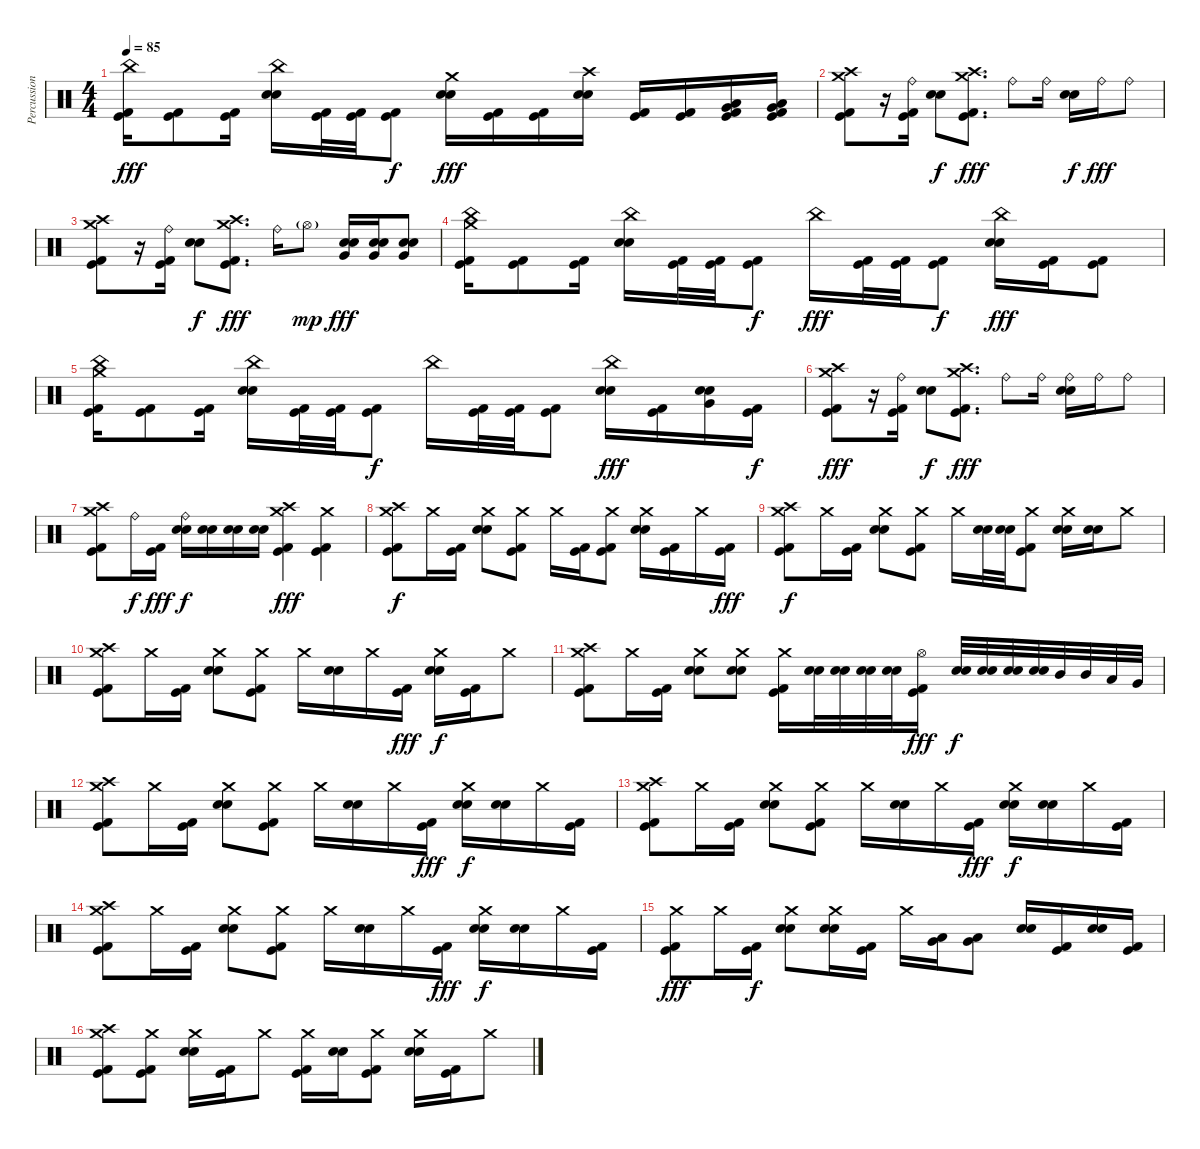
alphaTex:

\track ("Percussion" "Percussion") {instrument percussion}
\staff {score}
\articulation defaults
\ts (4 4)
\tempo 85
\clef neutral
\ks c
("China (hit)" "Kick (hit)" "Kick (hit) 2").16{dy fff} ("Kick (hit)" "Kick (hit) 2").8 ("Kick (hit)" "Kick (hit) 2").16 ("China (hit)" "Electric Snare (hit)" "Snare (hit) 2").16 ("Kick (hit)" "Kick (hit) 2").32 ("Kick (hit)" "Kick (hit) 2").32 ("Kick (hit)" "Kick (hit) 2").8{dy f} ("Crash medium (hit)" "Electric Snare (hit)" "Snare (hit) 2").16{dy fff} ("Kick (hit)" "Kick (hit) 2").16 ("Kick (hit)" "Kick (hit) 2").16 ("Crash high (hit)" "Electric Snare (hit)" "Snare (hit) 2").16 ("Kick (hit)" "Kick (hit) 2").16 ("Kick (hit)" "Kick (hit) 2").16 ("Very Low Tom (hit)" "Low Floor Tom (hit)" "Kick (hit)" "Kick (hit) 2").16 ("Very Low Tom (hit)" "Low Floor Tom (hit)" "Kick (hit)" "Kick (hit) 2").16 |
("Crash high (hit)" "Crash medium (hit)" "Kick (hit)" "Kick (hit) 2").8 r.16 ("Ride (bell)" "Kick (hit)" "Kick (hit) 2").16 ("Electric Snare (hit)" "Snare (hit) 2").8{dy f} ("Crash medium (hit)" "Crash high (hit)" "Kick (hit)" "Kick (hit) 2").8{d dy fff} "Ride (bell)".8 "Ride (bell)".16 ("Electric Snare (hit)" "Snare (hit) 2").16{dy f} "Ride (bell)".16{dy fff} "Ride (bell)".8 |
("Crash high (hit)" "Crash medium (hit)" "Kick (hit)" "Kick (hit) 2").8 r.16 ("Ride (bell)" "Kick (hit)" "Kick (hit) 2").16 ("Electric Snare (hit)" "Snare (hit) 2").8{dy f} ("Crash medium (hit)" "Crash high (hit)" "Kick (hit)" "Kick (hit) 2").8{d dy fff} "Ride (bell)".16 "Hi-Hat (open)"{g}.8{dy mp} ("Electric Snare (hit)" "Snare (hit) 2" "Very Low Tom (hit)").16{dy fff} ("Electric Snare (hit)" "Snare (hit) 2" "Very Low Tom (hit)").16 ("Electric Snare (hit)" "Snare (hit) 2" "Very Low Tom (hit)").8 |
("Crash medium (hit)" "China (hit)" "Kick (hit)" "Kick (hit) 2").16 ("Kick (hit)" "Kick (hit) 2").8 ("Kick (hit)" "Kick (hit) 2").16 ("China (hit)" "Electric Snare (hit)" "Snare (hit) 2").16 ("Kick (hit)" "Kick (hit) 2").32 ("Kick (hit)" "Kick (hit) 2").32 ("Kick (hit)" "Kick (hit) 2").8{dy f} "China (hit)".16{dy fff} ("Kick (hit)" "Kick (hit) 2").32 ("Kick (hit)" "Kick (hit) 2").32 ("Kick (hit)" "Kick (hit) 2").8{dy f} ("China (hit)" "Electric Snare (hit)" "Snare (hit) 2").16{dy fff} ("Kick (hit)" "Kick (hit) 2").16 ("Kick (hit)" "Kick (hit) 2").8 |
("Crash medium (hit)" "China (hit)" "Kick (hit)" "Kick (hit) 2").16 ("Kick (hit)" "Kick (hit) 2").8 ("Kick (hit)" "Kick (hit) 2").16 ("China (hit)" "Electric Snare (hit)" "Snare (hit) 2").16 ("Kick (hit)" "Kick (hit) 2").32 ("Kick (hit)" "Kick (hit) 2").32 ("Kick (hit)" "Kick (hit) 2").8{dy f} "China (hit)".16 ("Kick (hit)" "Kick (hit) 2").32 ("Kick (hit)" "Kick (hit) 2").32 ("Kick (hit)" "Kick (hit) 2").8 ("China (hit)" "Electric Snare (hit)" "Snare (hit) 2").16{dy fff} ("Kick (hit)" "Kick (hit) 2").16 ("Very Low Tom (hit)" "Electric Snare (hit)" "Snare (hit) 2").16 ("Kick (hit)" "Kick (hit) 2").16{dy f} |
("Crash high (hit)" "Crash medium (hit)" "Kick (hit)" "Kick (hit) 2").8{dy fff} r.16 ("Ride (bell)" "Kick (hit)" "Kick (hit) 2").16 ("Electric Snare (hit)" "Snare (hit) 2").8{dy f} ("Crash medium (hit)" "Crash high (hit)" "Kick (hit)" "Kick (hit) 2").8{d dy fff} "Ride (bell)".8 "Ride (bell)".16 ("Ride (bell)" "Electric Snare (hit)" "Snare (hit) 2").16 "Ride (bell)".16 "Ride (bell)".8 |
("Crash high (hit)" "Crash medium (hit)" "Kick (hit)" "Kick (hit) 2").8 "Ride (bell)".16{dy f} ("Kick (hit)" "Kick (hit) 2").16{dy fff} ("Ride (bell)" "Electric Snare (hit)" "Snare (hit) 2").16{dy f} ("Electric Snare (hit)" "Snare (hit) 2").16 ("Electric Snare (hit)" "Snare (hit) 2").16 ("Electric Snare (hit)" "Snare (hit) 2").16 ("Crash medium (hit)" "Crash high (hit)" "Kick (hit)" "Kick (hit) 2").4{dy fff} ("Crash medium (hit)" "Kick (hit)" "Kick (hit) 2").4 |
("Crash high (hit)" "Crash medium (hit)" "Kick (hit)" "Kick (hit) 2").8{dy f} "Crash medium (hit)".16 ("Kick (hit)" "Kick (hit) 2").16 ("Crash medium (hit)" "Electric Snare (hit)" "Snare (hit) 2").8 ("Crash medium (hit)" "Kick (hit)" "Kick (hit) 2").8 "Crash medium (hit)".16 ("Kick (hit)" "Kick (hit) 2").16 ("Crash medium (hit)" "Kick (hit)" "Kick (hit) 2").8 ("Crash medium (hit)" "Electric Snare (hit)" "Snare (hit) 2").16 ("Kick (hit)" "Kick (hit) 2").16 "Crash medium (hit)".16 ("Kick (hit)" "Kick (hit) 2").16{dy fff} |
("Crash high (hit)" "Crash medium (hit)" "Kick (hit)" "Kick (hit) 2").8{dy f} "Crash medium (hit)".16 ("Kick (hit)" "Kick (hit) 2").16 ("Crash medium (hit)" "Electric Snare (hit)" "Snare (hit) 2").8 ("Crash medium (hit)" "Kick (hit)" "Kick (hit) 2").8 "Crash medium (hit)".16 ("Electric Snare (hit)" "Snare (hit) 2").32 ("Electric Snare (hit)" "Snare (hit) 2").32 ("Crash medium (hit)" "Kick (hit)" "Kick (hit) 2").8 ("Crash medium (hit)" "Electric Snare (hit)" "Snare (hit) 2").16 ("Electric Snare (hit)" "Snare (hit) 2").16 "Crash medium (hit)".8 |
("Crash high (hit)" "Crash medium (hit)" "Kick (hit)" "Kick (hit) 2").8 "Crash medium (hit)".16 ("Kick (hit)" "Kick (hit) 2").16 ("Crash medium (hit)" "Electric Snare (hit)" "Snare (hit) 2").8 ("Crash medium (hit)" "Kick (hit)" "Kick (hit) 2").8 "Crash medium (hit)".16 ("Electric Snare (hit)" "Snare (hit) 2").16 "Crash medium (hit)".16 ("Kick (hit)" "Kick (hit) 2").16{dy fff} ("Crash medium (hit)" "Electric Snare (hit)" "Snare (hit) 2").16{dy f} ("Kick (hit)" "Kick (hit) 2").16 "Crash medium (hit)".8 |
("Crash high (hit)" "Crash medium (hit)" "Kick (hit)" "Kick (hit) 2").8 "Crash medium (hit)".16 ("Kick (hit)" "Kick (hit) 2").16 ("Crash medium (hit)" "Electric Snare (hit)" "Snare (hit) 2").8 ("Crash medium (hit)" "Electric Snare (hit)" "Snare (hit) 2").8 ("Crash medium (hit)" "Kick (hit)" "Kick (hit) 2").16 ("Electric Snare (hit)" "Snare (hit) 2").32 ("Electric Snare (hit)" "Snare (hit) 2").32 ("Electric Snare (hit)" "Snare (hit) 2").32 ("Electric Snare (hit)" "Snare (hit) 2").32 ("Hi-Hat (open)" "Kick (hit)" "Kick (hit) 2").16{dy fff} ("Electric Snare (hit)" "Snare (hit) 2").32{dy f} ("Electric Snare (hit)" "Snare (hit) 2").32 ("Electric Snare (hit)" "Snare (hit) 2").32 ("Electric Snare (hit)" "Snare (hit) 2").32 "Mid Tom (hit)".32 "Mid Tom (hit)".32 "Low Tom (hit)".32 "Very Low Tom (hit)".32 |
("Crash high (hit)" "Crash medium (hit)" "Kick (hit)" "Kick (hit) 2").8 "Crash medium (hit)".16 ("Kick (hit)" "Kick (hit) 2").16 ("Crash medium (hit)" "Electric Snare (hit)" "Snare (hit) 2").8 ("Crash medium (hit)" "Kick (hit)" "Kick (hit) 2").8 "Crash medium (hit)".16 ("Electric Snare (hit)" "Snare (hit) 2").16 "Crash medium (hit)".16 ("Kick (hit)" "Kick (hit) 2").16{dy fff} ("Crash medium (hit)" "Electric Snare (hit)" "Snare (hit) 2").16{dy f} ("Electric Snare (hit)" "Snare (hit) 2").16 "Crash medium (hit)".16 ("Kick (hit)" "Kick (hit) 2").16 |
("Crash high (hit)" "Crash medium (hit)" "Kick (hit)" "Kick (hit) 2").8 "Crash medium (hit)".16 ("Kick (hit)" "Kick (hit) 2").16 ("Crash medium (hit)" "Electric Snare (hit)" "Snare (hit) 2").8 ("Crash medium (hit)" "Kick (hit)" "Kick (hit) 2").8 "Crash medium (hit)".16 ("Electric Snare (hit)" "Snare (hit) 2").16 "Crash medium (hit)".16 ("Kick (hit)" "Kick (hit) 2").16{dy fff} ("Crash medium (hit)" "Electric Snare (hit)" "Snare (hit) 2").16{dy f} ("Electric Snare (hit)" "Snare (hit) 2").16 "Crash medium (hit)".16 ("Kick (hit)" "Kick (hit) 2").16 |
("Crash high (hit)" "Crash medium (hit)" "Kick (hit)" "Kick (hit) 2").8 "Crash medium (hit)".16 ("Kick (hit)" "Kick (hit) 2").16 ("Crash medium (hit)" "Electric Snare (hit)" "Snare (hit) 2").8 ("Crash medium (hit)" "Kick (hit)" "Kick (hit) 2").8 "Crash medium (hit)".16 ("Electric Snare (hit)" "Snare (hit) 2").16 "Crash medium (hit)".16 ("Kick (hit)" "Kick (hit) 2").16{dy fff} ("Crash medium (hit)" "Electric Snare (hit)" "Snare (hit) 2").16{dy f} ("Electric Snare (hit)" "Snare (hit) 2").16 "Crash medium (hit)".16 ("Kick (hit)" "Kick (hit) 2").16 |
("Crash medium (hit)" "Kick (hit)" "Kick (hit) 2").8{dy fff} "Crash medium (hit)".16 ("Kick (hit)" "Kick (hit) 2").16{dy f} ("Crash medium (hit)" "Electric Snare (hit)" "Snare (hit) 2").8 ("Crash medium (hit)" "Electric Snare (hit)" "Snare (hit) 2").16 ("Kick (hit)" "Kick (hit) 2").16 "Crash medium (hit)".16 ("Low Tom (hit)" "Very Low Tom (hit)").16 ("Very Low Tom (hit)" "Low Floor Tom (hit)").8 ("Electric Snare (hit)" "Snare (hit) 2").16 ("Kick (hit)" "Kick (hit) 2").16 ("Electric Snare (hit)" "Snare (hit) 2").16 ("Kick (hit)" "Kick (hit) 2").16 |
("Crash medium (hit)" "Crash high (hit)" "Kick (hit)" "Kick (hit) 2").8 ("Crash medium (hit)" "Kick (hit)" "Kick (hit) 2").8 ("Crash medium (hit)" "Electric Snare (hit)" "Snare (hit) 2").16 ("Kick (hit)" "Kick (hit) 2").16 "Crash medium (hit)".8 ("Crash medium (hit)" "Kick (hit)" "Kick (hit) 2").16 ("Electric Snare (hit)" "Snare (hit) 2").16 ("Crash medium (hit)" "Kick (hit)" "Kick (hit) 2").8 ("Crash medium (hit)" "Electric Snare (hit)" "Snare (hit) 2").16 ("Kick (hit)" "Kick (hit) 2").16 "Crash medium (hit)".8
